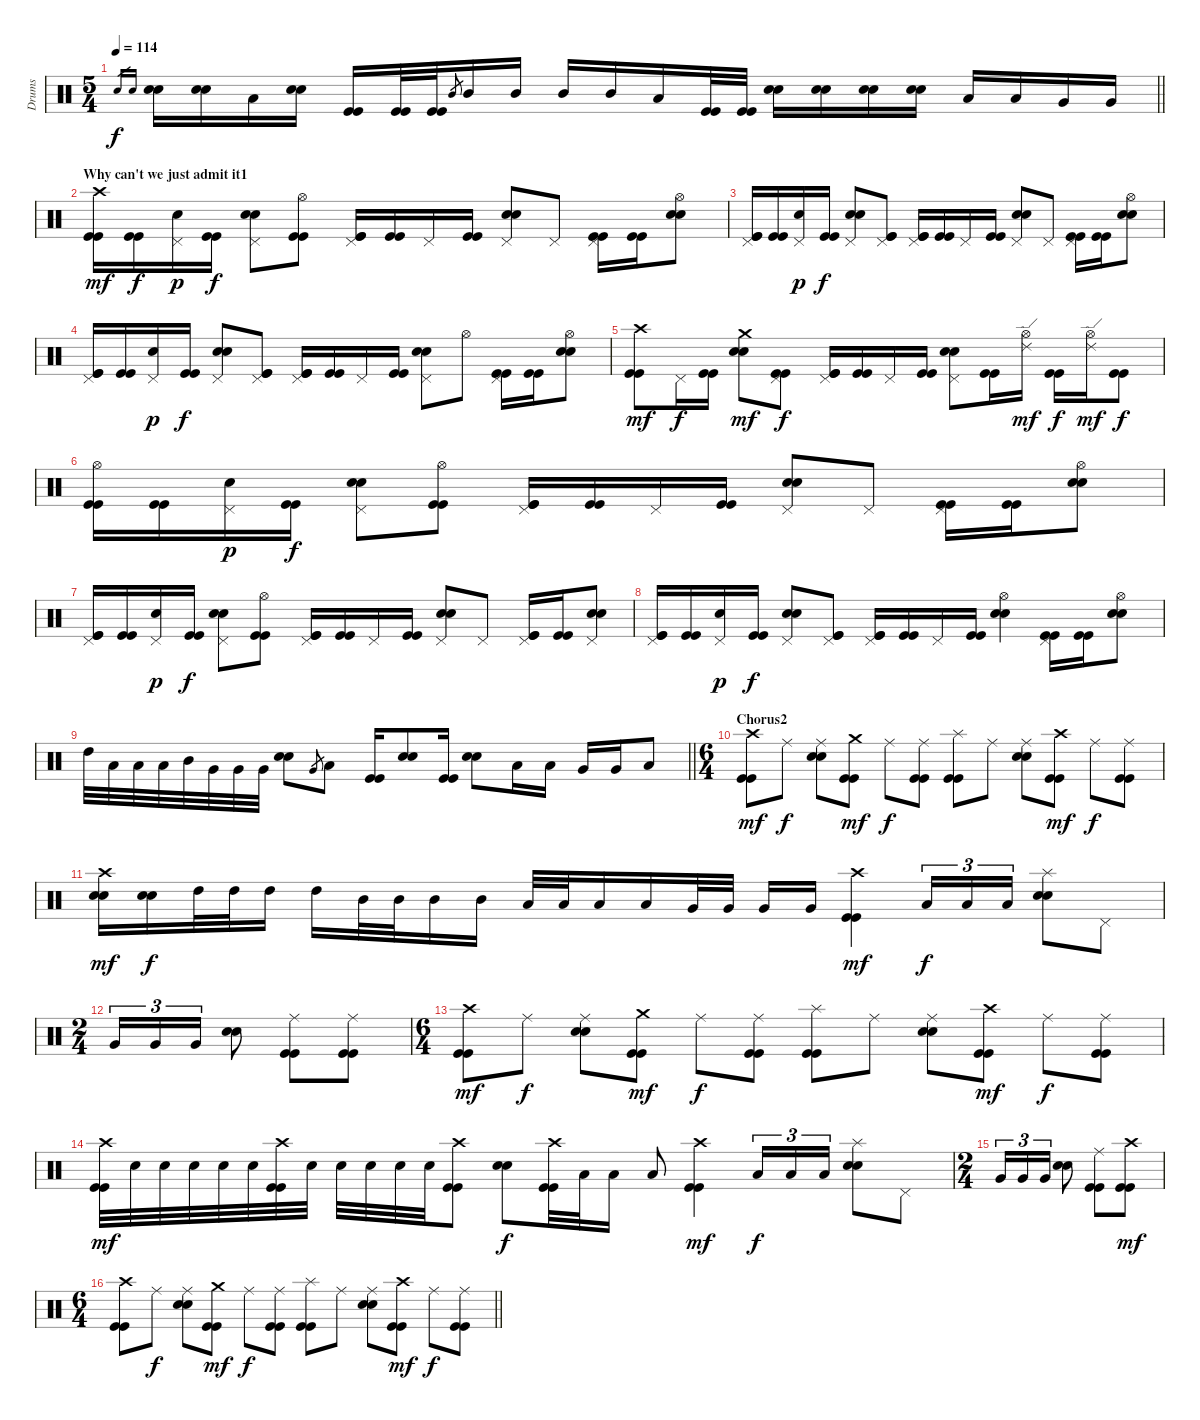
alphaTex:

\track ("Drums" "Drums") {instrument percussion}
\staff {score}
\articulation defaults
\ts (5 4)
\tempo 114
\clef neutral
\barLineRight lightlight
\ks c "Snare (hit) 2".16{gr dy f} "Electric Snare (hit)".16{gr}
("Snare (hit) 2" "Electric Snare (hit)").16 ("Snare (hit) 2" "Electric Snare (hit)").16 "Low Tom (hit)".16 ("Snare (hit) 2" "Electric Snare (hit)").16 ("Kick (hit)" "Kick (hit)").16 ("Kick (hit)" "Kick (hit)").32 ("Kick (hit)" "Kick (hit)").32 "Mid Tom (hit)".8{gr} "Mid Tom (hit)".16 "Mid Tom (hit)".16 "Mid Tom (hit)".16 "Mid Tom (hit)".16 "Low Floor Tom (hit)".16 ("Kick (hit)" "Kick (hit)").32 ("Kick (hit)" "Kick (hit)").32 ("Snare (hit) 2" "Electric Snare (hit)").16 ("Snare (hit) 2" "Electric Snare (hit)").16 ("Snare (hit) 2" "Electric Snare (hit)").16 ("Snare (hit) 2" "Electric Snare (hit)").16 "Low Tom (hit)".16 "Low Tom (hit)".16 "Very Low Tom (hit)".16 "Very Low Tom (hit)".16 |
\section ("" "Why can't we just admit it1")
("Kick (hit)" "Kick (hit)" "Crash high (hit)").16{dy mf} ("Kick (hit)" "Kick (hit)").16{dy f} ("Snare (hit) 2" "Pedal Hi-Hat (hit)").16{dy p} ("Kick (hit)" "Kick (hit)").16{dy f} ("Snare (hit) 2" "Electric Snare (hit)" "Pedal Hi-Hat (hit)").8 ("Kick (hit)" "Kick (hit)" "Hi-Hat (open)").8 ("Kick (hit)" "Kick (hit)" "Pedal Hi-Hat (hit)").16 ("Kick (hit)" "Kick (hit)").16 "Pedal Hi-Hat (hit)".16 ("Kick (hit)" "Kick (hit)").16 ("Snare (hit) 2" "Electric Snare (hit)" "Pedal Hi-Hat (hit)").8 "Pedal Hi-Hat (hit)".8 ("Kick (hit)" "Kick (hit)" "Pedal Hi-Hat (hit)").16 ("Kick (hit)" "Kick (hit)").16 ("Snare (hit) 2" "Electric Snare (hit)" "Hi-Hat (open)").8 |
("Kick (hit)" "Kick (hit)" "Pedal Hi-Hat (hit)").16 ("Kick (hit)" "Kick (hit)").16 ("Snare (hit) 2" "Pedal Hi-Hat (hit)").16{dy p} ("Kick (hit)" "Kick (hit)").16{dy f} ("Snare (hit) 2" "Electric Snare (hit)" "Pedal Hi-Hat (hit)").8 ("Kick (hit)" "Kick (hit)" "Pedal Hi-Hat (hit)").8 ("Kick (hit)" "Kick (hit)" "Pedal Hi-Hat (hit)").16 ("Kick (hit)" "Kick (hit)").16 "Pedal Hi-Hat (hit)".16 ("Kick (hit)" "Kick (hit)").16 ("Snare (hit) 2" "Electric Snare (hit)" "Pedal Hi-Hat (hit)").8 "Pedal Hi-Hat (hit)".8 ("Kick (hit)" "Kick (hit)" "Pedal Hi-Hat (hit)").16 ("Kick (hit)" "Kick (hit)").16 ("Snare (hit) 2" "Electric Snare (hit)" "Hi-Hat (open)").8 |
("Kick (hit)" "Kick (hit)" "Pedal Hi-Hat (hit)").16 ("Kick (hit)" "Kick (hit)").16 ("Snare (hit) 2" "Pedal Hi-Hat (hit)").16{dy p} ("Kick (hit)" "Kick (hit)").16{dy f} ("Snare (hit) 2" "Electric Snare (hit)" "Pedal Hi-Hat (hit)").8 ("Kick (hit)" "Kick (hit)" "Pedal Hi-Hat (hit)").8 ("Kick (hit)" "Kick (hit)" "Pedal Hi-Hat (hit)").16 ("Kick (hit)" "Kick (hit)").16 "Pedal Hi-Hat (hit)".16 ("Kick (hit)" "Kick (hit)").16 ("Snare (hit) 2" "Electric Snare (hit)" "Pedal Hi-Hat (hit)").8 "Hi-Hat (open)".8 ("Kick (hit)" "Kick (hit)" "Pedal Hi-Hat (hit)").16 ("Kick (hit)" "Kick (hit)").16 ("Snare (hit) 2" "Electric Snare (hit)" "Hi-Hat (open)").8 |
("Kick (hit)" "Kick (hit)" "Crash high (hit)").8{dy mf} "Pedal Hi-Hat (hit)".16{dy f} ("Kick (hit)" "Kick (hit)").16 ("Snare (hit) 2" "Electric Snare (hit)" "Crash medium (hit)").8{dy mf} ("Kick (hit)" "Kick (hit)" "Pedal Hi-Hat (hit)").8{dy f} ("Kick (hit)" "Kick (hit)" "Pedal Hi-Hat (hit)").16 ("Kick (hit)" "Kick (hit)").16 "Pedal Hi-Hat (hit)".16 ("Kick (hit)" "Kick (hit)").16 ("Snare (hit) 2" "Electric Snare (hit)" "Pedal Hi-Hat (hit)").8 ("Kick (hit)" "Kick (hit)").16 ("Hi-Hat (open)" "Ride (edge) 2").16{dy mf} ("Kick (hit)" "Kick (hit)").16{dy f} ("Hi-Hat (open)" "Ride (edge) 2").16{dy mf} ("Kick (hit)" "Kick (hit)").8{dy f} |
("Kick (hit)" "Kick (hit)" "Hi-Hat (open)").16 ("Kick (hit)" "Kick (hit)").16 ("Snare (hit) 2" "Pedal Hi-Hat (hit)").16{dy p} ("Kick (hit)" "Kick (hit)").16{dy f} ("Snare (hit) 2" "Electric Snare (hit)" "Pedal Hi-Hat (hit)").8 ("Kick (hit)" "Kick (hit)" "Hi-Hat (open)").8 ("Kick (hit)" "Kick (hit)" "Pedal Hi-Hat (hit)").16 ("Kick (hit)" "Kick (hit)").16 "Pedal Hi-Hat (hit)".16 ("Kick (hit)" "Kick (hit)").16 ("Snare (hit) 2" "Electric Snare (hit)" "Pedal Hi-Hat (hit)").8 "Pedal Hi-Hat (hit)".8 ("Kick (hit)" "Kick (hit)" "Pedal Hi-Hat (hit)").16 ("Kick (hit)" "Kick (hit)").16 ("Snare (hit) 2" "Electric Snare (hit)" "Hi-Hat (open)").8 |
("Kick (hit)" "Kick (hit)" "Pedal Hi-Hat (hit)").16 ("Kick (hit)" "Kick (hit)").16 ("Snare (hit) 2" "Pedal Hi-Hat (hit)").16{dy p} ("Kick (hit)" "Kick (hit)").16{dy f} ("Snare (hit) 2" "Electric Snare (hit)" "Pedal Hi-Hat (hit)").8 ("Kick (hit)" "Kick (hit)" "Hi-Hat (open)").8 ("Kick (hit)" "Kick (hit)" "Pedal Hi-Hat (hit)").16 ("Kick (hit)" "Kick (hit)").16 "Pedal Hi-Hat (hit)".16 ("Kick (hit)" "Kick (hit)").16 ("Snare (hit) 2" "Electric Snare (hit)" "Pedal Hi-Hat (hit)").8 "Pedal Hi-Hat (hit)".8 ("Kick (hit)" "Kick (hit)" "Pedal Hi-Hat (hit)").16 ("Kick (hit)" "Kick (hit)").16 ("Snare (hit) 2" "Electric Snare (hit)" "Pedal Hi-Hat (hit)").8 |
("Kick (hit)" "Kick (hit)" "Pedal Hi-Hat (hit)").16 ("Kick (hit)" "Kick (hit)").16 ("Snare (hit) 2" "Pedal Hi-Hat (hit)").16{dy p} ("Kick (hit)" "Kick (hit)").16{dy f} ("Snare (hit) 2" "Electric Snare (hit)" "Pedal Hi-Hat (hit)").8 ("Kick (hit)" "Kick (hit)" "Pedal Hi-Hat (hit)").8 ("Kick (hit)" "Kick (hit)" "Pedal Hi-Hat (hit)").16 ("Kick (hit)" "Kick (hit)").16 "Pedal Hi-Hat (hit)".16 ("Kick (hit)" "Kick (hit)").16 ("Snare (hit) 2" "Electric Snare (hit)" "Hi-Hat (open)").4 ("Kick (hit)" "Kick (hit)" "Pedal Hi-Hat (hit)").16 ("Kick (hit)" "Kick (hit)").16 ("Snare (hit) 2" "Electric Snare (hit)" "Hi-Hat (open)").8 |
\barLineRight lightlight "High Tom (hit)".32 "Low Tom (hit)".32 "Low Tom (hit)".32 "Low Tom (hit)".32 "Mid Tom (hit)".32 "Very Low Tom (hit)".32 "Very Low Tom (hit)".32 "Very Low Tom (hit)".32
("Snare (hit) 2" "Electric Snare (hit)").8 "Very Low Tom (hit)".8{gr} "Low Tom (hit)".8 ("Kick (hit)" "Kick (hit)").16 ("Snare (hit) 2" "Electric Snare (hit)").8 ("Kick (hit)" "Kick (hit)").16 ("Snare (hit) 2" "Electric Snare (hit)").8 "Low Tom (hit)".16 "Low Tom (hit)".16 "Very Low Tom (hit)".16 "Very Low Tom (hit)".16 "Low Floor Tom (hit)".8 |
\ts (6 4)
\section ("" "Chorus2")
("Kick (hit)" "Kick (hit)" "Crash high (hit)").8{dy mf} "Ride (middle)".8{dy f} ("Snare (hit) 2" "Electric Snare (hit)" "Ride (middle)").8 ("Kick (hit)" "Kick (hit)" "Crash medium (hit)").8{dy mf} "Ride (middle)".8{dy f} ("Kick (hit)" "Kick (hit)" "Ride (middle)").8 ("Kick (hit)" "Kick (hit)" "Splash (hit)").8 "Ride (middle)".8 ("Snare (hit) 2" "Electric Snare (hit)" "Ride (middle)").8 ("Kick (hit)" "Kick (hit)" "Crash high (hit)").8{dy mf} "Ride (middle)".8{dy f} ("Kick (hit)" "Kick (hit)" "Ride (middle)").8 |
("Snare (hit) 2" "Electric Snare (hit)" "Crash high (hit)").16{dy mf} ("Snare (hit) 2" "Electric Snare (hit)").16{dy f} "High Tom (hit)".32 "High Tom (hit)".32 "High Tom (hit)".16 "High Tom (hit)".16 "Mid Tom (hit)".32 "Mid Tom (hit)".32 "Mid Tom (hit)".16 "Mid Tom (hit)".16 "Low Tom (hit)".32 "Low Tom (hit)".32 "Low Tom (hit)".16 "Low Tom (hit)".16 "Very Low Tom (hit)".32 "Very Low Tom (hit)".32 "Very Low Tom (hit)".16 "Very Low Tom (hit)".16 ("Kick (hit)" "Kick (hit)" "Crash high (hit)").4{dy mf} "Low Tom (hit)".16{tu (3 2) dy f} "Low Tom (hit)".16{tu (3 2)} "Low Tom (hit)".16{tu (3 2)} ("Snare (hit) 2" "Electric Snare (hit)" "Splash (hit)").8 "Pedal Hi-Hat (hit)".8 |
\ts (2 4)
"Very Low Tom (hit)".16{tu (3 2)} "Very Low Tom (hit)".16{tu (3 2)} "Very Low Tom (hit)".16{tu (3 2)} ("Snare (hit) 2" "Electric Snare (hit)").8 ("Kick (hit)" "Kick (hit)" "Ride (middle)").8 ("Kick (hit)" "Kick (hit)" "Ride (middle)").8 |
\ts (6 4)
("Kick (hit)" "Kick (hit)" "Crash high (hit)").8{dy mf} "Ride (middle)".8{dy f} ("Snare (hit) 2" "Electric Snare (hit)" "Ride (middle)").8 ("Kick (hit)" "Kick (hit)" "Crash medium (hit)").8{dy mf} "Ride (middle)".8{dy f} ("Kick (hit)" "Kick (hit)" "Ride (middle)").8 ("Kick (hit)" "Kick (hit)" "Splash (hit)").8 "Ride (middle)".8 ("Snare (hit) 2" "Electric Snare (hit)" "Ride (middle)").8 ("Kick (hit)" "Kick (hit)" "Crash high (hit)").8{dy mf} "Ride (middle)".8{dy f} ("Kick (hit)" "Kick (hit)" "Ride (middle)").8 |
("Kick (hit)" "Kick (hit)" "Crash high (hit)").32{dy mf} "Snare (hit) 2".32 "Snare (hit) 2".32 "Snare (hit) 2".32 "Snare (hit) 2".32 "Snare (hit) 2".32 ("Kick (hit)" "Kick (hit)" "Crash high (hit)").32 "Snare (hit) 2".32 "Snare (hit) 2".32 "Snare (hit) 2".32 "Snare (hit) 2".32 "Snare (hit) 2".32 ("Kick (hit)" "Kick (hit)" "Crash high (hit)").8 ("Snare (hit) 2" "Electric Snare (hit)").8{dy f} ("Kick (hit)" "Kick (hit)" "Crash high (hit)").32 "Low Floor Tom (hit)".32 "Low Floor Tom (hit)".16 "Low Floor Tom (hit)".8 ("Kick (hit)" "Kick (hit)" "Crash high (hit)").4{dy mf} "Low Tom (hit)".16{tu (3 2) dy f} "Low Tom (hit)".16{tu (3 2)} "Low Tom (hit)".16{tu (3 2)} ("Snare (hit) 2" "Electric Snare (hit)" "Splash (hit)").8 "Pedal Hi-Hat (hit)".8 |
\ts (2 4)
"Very Low Tom (hit)".16{tu (3 2)} "Very Low Tom (hit)".16{tu (3 2)} "Very Low Tom (hit)".16{tu (3 2)} ("Snare (hit) 2" "Electric Snare (hit)").8 ("Kick (hit)" "Kick (hit)" "Ride (middle)").8 ("Kick (hit)" "Kick (hit)" "Crash high (hit)").8{dy mf} |
\ts (6 4)
\barLineRight lightlight
("Kick (hit)" "Kick (hit)" "Crash high (hit)").8 "Ride (middle)".8{dy f} ("Snare (hit) 2" "Electric Snare (hit)" "Ride (middle)").8 ("Kick (hit)" "Kick (hit)" "Crash medium (hit)").8{dy mf} "Ride (middle)".8{dy f} ("Kick (hit)" "Kick (hit)" "Ride (middle)").8 ("Kick (hit)" "Kick (hit)" "Splash (hit)").8 "Ride (middle)".8 ("Snare (hit) 2" "Electric Snare (hit)" "Ride (middle)").8 ("Kick (hit)" "Kick (hit)" "Crash high (hit)").8{dy mf} "Ride (middle)".8{dy f} ("Kick (hit)" "Kick (hit)" "Ride (middle)").8
